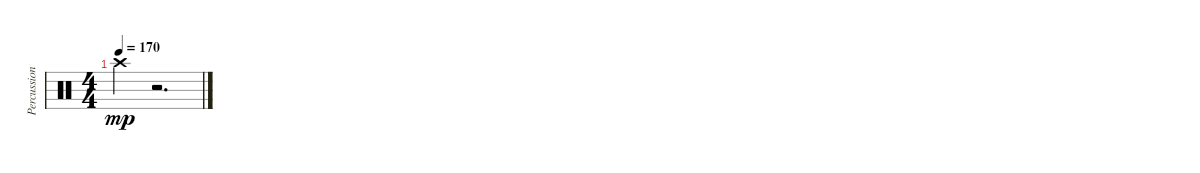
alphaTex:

\track ("Percussions" "Percussion") {instrument percussion}
\staff {score}
\articulation defaults
\ts (4 4)
\tempo 170
\clef neutral
\ks c "Crash high (hit)".4{dy mp}
r.2{d}
